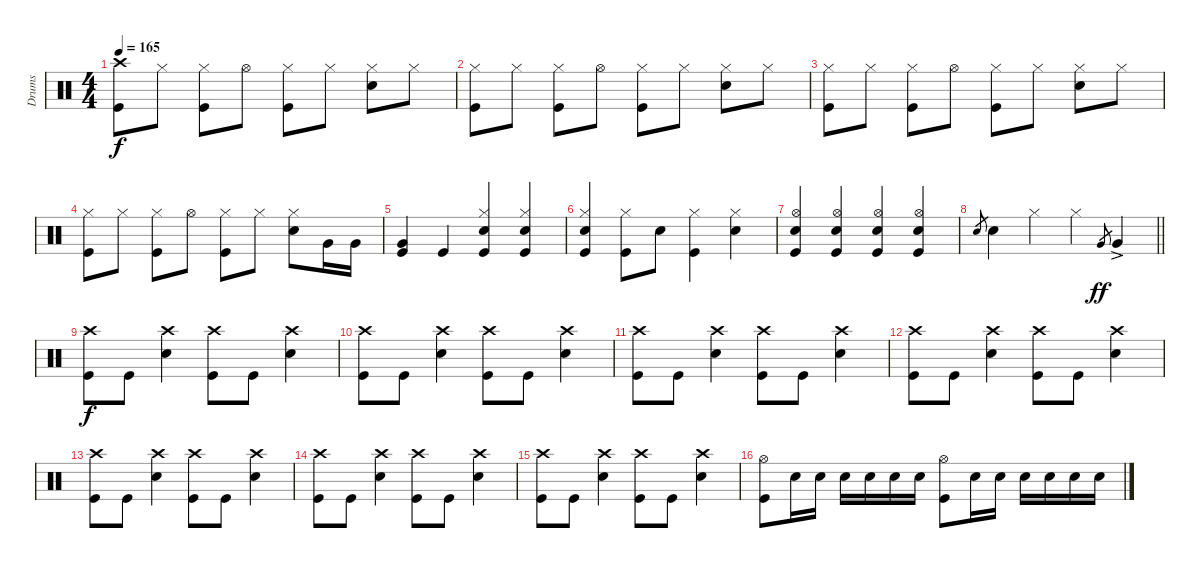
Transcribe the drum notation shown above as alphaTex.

\track ("Drums" "Drums") {instrument percussion}
\staff {score}
\articulation defaults
\ts (4 4)
\tempo 165
\clef neutral
\ks c
("Crash high (hit)" "Kick (hit)").8{dy f} "Hi-Hat (closed)".8 ("Kick (hit)" "Hi-Hat (closed)").8 "Hi-Hat (open)".8 ("Kick (hit)" "Hi-Hat (closed)").8 "Hi-Hat (closed)".8 ("Snare (hit) 2" "Hi-Hat (closed)").8 "Hi-Hat (closed)".8 |
("Kick (hit)" "Hi-Hat (closed)").8 "Hi-Hat (closed)".8 ("Kick (hit)" "Hi-Hat (closed)").8 "Hi-Hat (open)".8 ("Kick (hit)" "Hi-Hat (closed)").8 "Hi-Hat (closed)".8 ("Snare (hit) 2" "Hi-Hat (closed)").8 "Hi-Hat (closed)".8 |
("Kick (hit)" "Hi-Hat (closed)").8 "Hi-Hat (closed)".8 ("Kick (hit)" "Hi-Hat (closed)").8 "Hi-Hat (open)".8 ("Kick (hit)" "Hi-Hat (closed)").8 "Hi-Hat (closed)".8 ("Snare (hit) 2" "Hi-Hat (closed)").8 "Hi-Hat (closed)".8 |
("Kick (hit)" "Hi-Hat (closed)").8 "Hi-Hat (closed)".8 ("Kick (hit)" "Hi-Hat (closed)").8 "Hi-Hat (open)".8 ("Kick (hit)" "Hi-Hat (closed)").8 "Hi-Hat (closed)".8 ("Snare (hit) 2" "Hi-Hat (closed)").8 "Very Low Tom (hit)".16 "Very Low Tom (hit)".16 |
("Very Low Tom (hit)" "Kick (hit)").4 "Kick (hit)".4 ("Kick (hit)" "Snare (hit) 2" "Hi-Hat (closed)").4 ("Kick (hit)" "Snare (hit) 2" "Hi-Hat (closed)").4 |
("Kick (hit)" "Hi-Hat (closed)" "Snare (hit) 2").4 ("Kick (hit)" "Hi-Hat (closed)").8 "Snare (hit) 2".8 ("Hi-Hat (closed)" "Kick (hit)").4 ("Snare (hit) 2" "Hi-Hat (closed)").4 |
("Hi-Hat (open)" "Snare (hit) 2" "Kick (hit)").4 ("Hi-Hat (open)" "Snare (hit) 2" "Kick (hit)").4 ("Hi-Hat (open)" "Snare (hit) 2" "Kick (hit)").4 ("Hi-Hat (open)" "Snare (hit) 2" "Kick (hit)").4 |
\barLineRight lightlight "Snare (hit) 2".8{gr} "Snare (hit) 2".4 "Hi-Hat (closed)".4 "Hi-Hat (closed)".4 "Very Low Tom (hit)".8{gr dy ff} "Very Low Tom (hit)"{ac}.4
|
("Crash high (hit)" "Kick (hit)").8{dy f} "Kick (hit)".8 ("Crash high (hit)" "Snare (hit) 2").4 ("Crash high (hit)" "Kick (hit)").8 "Kick (hit)".8 ("Crash high (hit)" "Snare (hit) 2").4 |
("Crash high (hit)" "Kick (hit)").8 "Kick (hit)".8 ("Crash high (hit)" "Snare (hit) 2").4 ("Crash high (hit)" "Kick (hit)").8 "Kick (hit)".8 ("Crash high (hit)" "Snare (hit) 2").4 |
("Crash high (hit)" "Kick (hit)").8 "Kick (hit)".8 ("Crash high (hit)" "Snare (hit) 2").4 ("Crash high (hit)" "Kick (hit)").8 "Kick (hit)".8 ("Crash high (hit)" "Snare (hit) 2").4 |
("Crash high (hit)" "Kick (hit)").8 "Kick (hit)".8 ("Crash high (hit)" "Snare (hit) 2").4 ("Crash high (hit)" "Kick (hit)").8 "Kick (hit)".8 ("Crash high (hit)" "Snare (hit) 2").4 |
("Crash high (hit)" "Kick (hit)").8 "Kick (hit)".8 ("Crash high (hit)" "Snare (hit) 2").4 ("Crash high (hit)" "Kick (hit)").8 "Kick (hit)".8 ("Crash high (hit)" "Snare (hit) 2").4 |
("Crash high (hit)" "Kick (hit)").8 "Kick (hit)".8 ("Crash high (hit)" "Snare (hit) 2").4 ("Crash high (hit)" "Kick (hit)").8 "Kick (hit)".8 ("Crash high (hit)" "Snare (hit) 2").4 |
("Crash high (hit)" "Kick (hit)").8 "Kick (hit)".8 ("Crash high (hit)" "Snare (hit) 2").4 ("Crash high (hit)" "Kick (hit)").8 "Kick (hit)".8 ("Crash high (hit)" "Snare (hit) 2").4 |
("Hi-Hat (open)" "Kick (hit)").8 "Snare (hit) 2".16 "Snare (hit) 2".16 "Snare (hit) 2".16 "Snare (hit) 2".16 "Snare (hit) 2".16 "Snare (hit) 2".16 ("Hi-Hat (open)" "Kick (hit)").8 "Snare (hit) 2".16 "Snare (hit) 2".16 "Snare (hit) 2".16 "Snare (hit) 2".16 "Snare (hit) 2".16 "Snare (hit) 2".16
